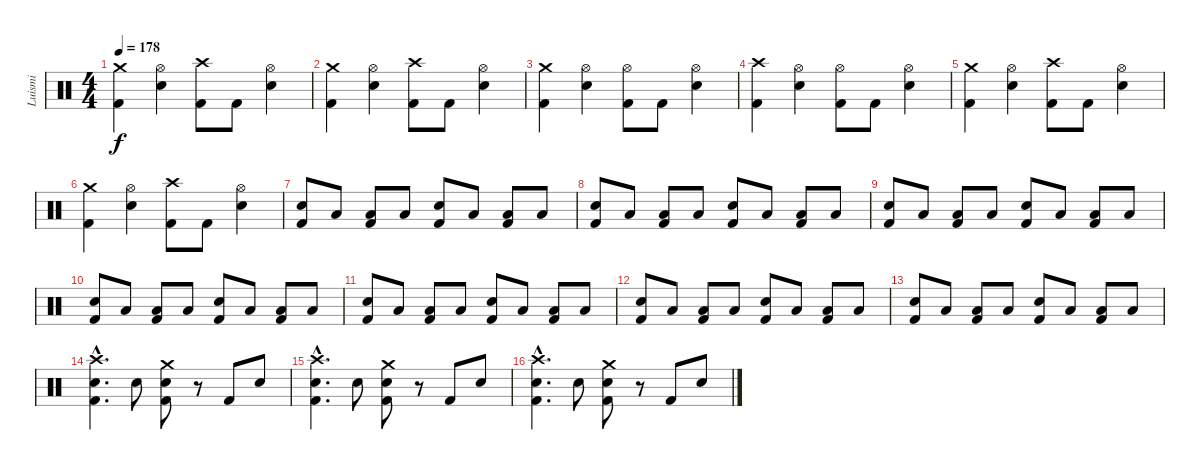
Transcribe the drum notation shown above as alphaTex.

\track ("Luismi" "Luismi") {instrument percussion}
\staff {score}
\articulation defaults
\ts (4 4)
\tempo 178
\clef neutral
\ks c
("Crash medium (hit)" "Kick (hit) 2").4{dy f} ("Hi-Hat (open)" "Snare (hit) 2").4 ("Crash high (hit)" "Kick (hit) 2").8 "Kick (hit) 2".8 ("Hi-Hat (open)" "Snare (hit) 2").4 |
("Crash medium (hit)" "Kick (hit) 2").4 ("Hi-Hat (open)" "Snare (hit) 2").4 ("Crash high (hit)" "Kick (hit) 2").8 "Kick (hit) 2".8 ("Hi-Hat (open)" "Snare (hit) 2").4 |
("Crash medium (hit)" "Kick (hit) 2").4 ("Hi-Hat (open)" "Snare (hit) 2").4 ("Hi-Hat (open)" "Kick (hit) 2").8 "Kick (hit) 2".8 ("Hi-Hat (open)" "Snare (hit) 2").4 |
("Crash high (hit)" "Kick (hit) 2").4 ("Hi-Hat (open)" "Snare (hit) 2").4 ("Hi-Hat (open)" "Kick (hit) 2").8 "Kick (hit) 2".8 ("Hi-Hat (open)" "Snare (hit) 2").4 |
("Crash medium (hit)" "Kick (hit) 2").4 ("Hi-Hat (open)" "Snare (hit) 2").4 ("Crash high (hit)" "Kick (hit) 2").8 "Kick (hit) 2".8 ("Hi-Hat (open)" "Snare (hit) 2").4 |
("Crash medium (hit)" "Kick (hit) 2").4 ("Hi-Hat (open)" "Snare (hit) 2").4 ("Crash high (hit)" "Kick (hit) 2").8 "Kick (hit) 2".8 ("Hi-Hat (open)" "Snare (hit) 2").4 |
("Snare (hit) 2" "Kick (hit) 2").8 "Low Tom (hit)".8 ("Low Floor Tom (hit)" "Kick (hit) 2").8 "Low Floor Tom (hit)".8 ("Snare (hit) 2" "Kick (hit) 2").8 "Low Tom (hit)".8 ("Low Floor Tom (hit)" "Kick (hit) 2").8 "Low Floor Tom (hit)".8 |
("Snare (hit) 2" "Kick (hit) 2").8 "Low Tom (hit)".8 ("Low Floor Tom (hit)" "Kick (hit) 2").8 "Low Floor Tom (hit)".8 ("Snare (hit) 2" "Kick (hit) 2").8 "Low Tom (hit)".8 ("Low Floor Tom (hit)" "Kick (hit) 2").8 "Low Floor Tom (hit)".8 |
("Snare (hit) 2" "Kick (hit) 2").8 "Low Tom (hit)".8 ("Low Floor Tom (hit)" "Kick (hit) 2").8 "Low Floor Tom (hit)".8 ("Snare (hit) 2" "Kick (hit) 2").8 "Low Tom (hit)".8 ("Low Floor Tom (hit)" "Kick (hit) 2").8 "Low Floor Tom (hit)".8 |
("Snare (hit) 2" "Kick (hit) 2").8 "Low Tom (hit)".8 ("Low Floor Tom (hit)" "Kick (hit) 2").8 "Low Floor Tom (hit)".8 ("Snare (hit) 2" "Kick (hit) 2").8 "Low Tom (hit)".8 ("Low Floor Tom (hit)" "Kick (hit) 2").8 "Low Floor Tom (hit)".8 |
("Snare (hit) 2" "Kick (hit) 2").8 "Low Tom (hit)".8 ("Low Floor Tom (hit)" "Kick (hit) 2").8 "Low Floor Tom (hit)".8 ("Snare (hit) 2" "Kick (hit) 2").8 "Low Tom (hit)".8 ("Low Floor Tom (hit)" "Kick (hit) 2").8 "Low Floor Tom (hit)".8 |
("Snare (hit) 2" "Kick (hit) 2").8 "Low Tom (hit)".8 ("Low Floor Tom (hit)" "Kick (hit) 2").8 "Low Floor Tom (hit)".8 ("Snare (hit) 2" "Kick (hit) 2").8 "Low Tom (hit)".8 ("Low Floor Tom (hit)" "Kick (hit) 2").8 "Low Floor Tom (hit)".8 |
("Snare (hit) 2" "Kick (hit) 2").8 "Low Tom (hit)".8 ("Low Floor Tom (hit)" "Kick (hit) 2").8 "Low Floor Tom (hit)".8 ("Snare (hit) 2" "Kick (hit) 2").8 "Low Tom (hit)".8 ("Low Floor Tom (hit)" "Kick (hit) 2").8 "Low Floor Tom (hit)".8 |
("Crash high (hit)"{hac} "Snare (hit) 2"{hac} "Kick (hit) 2"{hac}).4{d} "Snare (hit) 2".8 ("Crash medium (hit)" "Snare (hit) 2" "Kick (hit) 2").8 r.8 "Kick (hit) 2".8 "Snare (hit) 2".8 |
("Crash high (hit)"{hac} "Snare (hit) 2"{hac} "Kick (hit) 2"{hac}).4{d} "Snare (hit) 2".8 ("Crash medium (hit)" "Snare (hit) 2" "Kick (hit) 2").8 r.8 "Kick (hit) 2".8 "Snare (hit) 2".8 |
("Crash high (hit)"{hac} "Snare (hit) 2"{hac} "Kick (hit) 2"{hac}).4{d} "Snare (hit) 2".8 ("Crash medium (hit)" "Snare (hit) 2" "Kick (hit) 2").8 r.8 "Kick (hit) 2".8 "Snare (hit) 2".8
